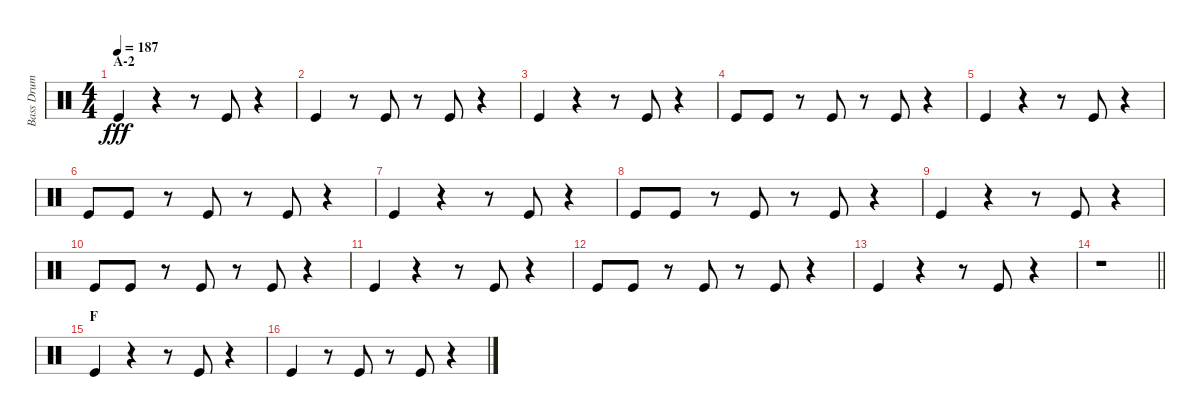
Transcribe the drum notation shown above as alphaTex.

\track ("Bass Drum" "Bass Drum") {instrument percussion}
\staff {score}
\articulation defaults
\ts (4 4)
\section ("" "A-2")
\tempo 187
\clef neutral
\ks c "Kick (hit)".4{dy fff}
r.4 r.8 "Kick (hit)".8 r.4 |
"Kick (hit)".4 r.8 "Kick (hit)".8 r.8 "Kick (hit)".8 r.4 |
"Kick (hit)".4 r.4 r.8 "Kick (hit)".8 r.4 |
"Kick (hit)".8 "Kick (hit)".8 r.8 "Kick (hit)".8 r.8 "Kick (hit)".8 r.4 |
"Kick (hit)".4 r.4 r.8 "Kick (hit)".8 r.4 |
"Kick (hit)".8 "Kick (hit)".8 r.8 "Kick (hit)".8 r.8 "Kick (hit)".8 r.4 |
"Kick (hit)".4 r.4 r.8 "Kick (hit)".8 r.4 |
"Kick (hit)".8 "Kick (hit)".8 r.8 "Kick (hit)".8 r.8 "Kick (hit)".8 r.4 |
"Kick (hit)".4 r.4 r.8 "Kick (hit)".8 r.4 |
"Kick (hit)".8 "Kick (hit)".8 r.8 "Kick (hit)".8 r.8 "Kick (hit)".8 r.4 |
"Kick (hit)".4 r.4 r.8 "Kick (hit)".8 r.4 |
"Kick (hit)".8 "Kick (hit)".8 r.8 "Kick (hit)".8 r.8 "Kick (hit)".8 r.4 |
"Kick (hit)".4 r.4 r.8 "Kick (hit)".8 r.4 |
\barLineRight lightlight
r.1 |
\section ("" "F")
"Kick (hit)".4 r.4 r.8 "Kick (hit)".8 r.4 |
"Kick (hit)".4 r.8 "Kick (hit)".8 r.8 "Kick (hit)".8 r.4
